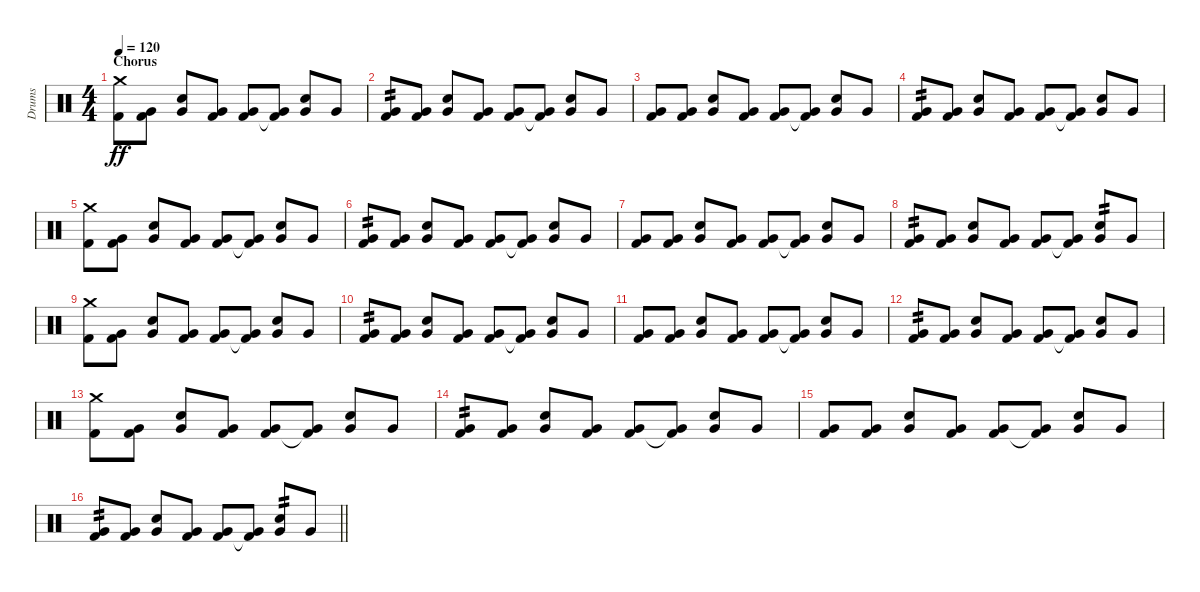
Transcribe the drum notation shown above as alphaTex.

\track ("Drums" "Drums") {instrument percussion}
\staff {score}
\articulation defaults
\ts (4 4)
\section ("" "Chorus")
\tempo 120
\clef neutral
\ks c
("Crash medium (hit)" "Kick (hit) 2").8{dy ff} ("Very Low Tom (hit)" "Kick (hit) 2").8 ("Very Low Tom (hit)" "Snare (hit) 2").8 ("Very Low Tom (hit)" "Kick (hit) 2").8 ("Very Low Tom (hit)" "Kick (hit) 2").8 ("Very Low Tom (hit)" "Kick (hit) 2"{t}).8 ("Very Low Tom (hit)" "Snare (hit) 2").8 "Very Low Tom (hit)".8 |
("Very Low Tom (hit)" "Kick (hit) 2").8{tp 2} ("Very Low Tom (hit)" "Kick (hit) 2").8 ("Very Low Tom (hit)" "Snare (hit) 2").8 ("Very Low Tom (hit)" "Kick (hit) 2").8 ("Very Low Tom (hit)" "Kick (hit) 2").8 ("Very Low Tom (hit)" "Kick (hit) 2"{t}).8 ("Very Low Tom (hit)" "Snare (hit) 2").8 "Very Low Tom (hit)".8 |
("Very Low Tom (hit)" "Kick (hit) 2").8 ("Very Low Tom (hit)" "Kick (hit) 2").8 ("Very Low Tom (hit)" "Snare (hit) 2").8 ("Very Low Tom (hit)" "Kick (hit) 2").8 ("Very Low Tom (hit)" "Kick (hit) 2").8 ("Very Low Tom (hit)" "Kick (hit) 2"{t}).8 ("Very Low Tom (hit)" "Snare (hit) 2").8 "Very Low Tom (hit)".8 |
("Very Low Tom (hit)" "Kick (hit) 2").8{tp 2} ("Very Low Tom (hit)" "Kick (hit) 2").8 ("Very Low Tom (hit)" "Snare (hit) 2").8 ("Very Low Tom (hit)" "Kick (hit) 2").8 ("Very Low Tom (hit)" "Kick (hit) 2").8 ("Very Low Tom (hit)" "Kick (hit) 2"{t}).8 ("Very Low Tom (hit)" "Snare (hit) 2").8 "Very Low Tom (hit)".8 |
("Crash medium (hit)" "Kick (hit) 2").8 ("Very Low Tom (hit)" "Kick (hit) 2").8 ("Very Low Tom (hit)" "Snare (hit) 2").8 ("Very Low Tom (hit)" "Kick (hit) 2").8 ("Very Low Tom (hit)" "Kick (hit) 2").8 ("Very Low Tom (hit)" "Kick (hit) 2"{t}).8 ("Very Low Tom (hit)" "Snare (hit) 2").8 "Very Low Tom (hit)".8 |
("Very Low Tom (hit)" "Kick (hit) 2").8{tp 2} ("Very Low Tom (hit)" "Kick (hit) 2").8 ("Very Low Tom (hit)" "Snare (hit) 2").8 ("Very Low Tom (hit)" "Kick (hit) 2").8 ("Very Low Tom (hit)" "Kick (hit) 2").8 ("Very Low Tom (hit)" "Kick (hit) 2"{t}).8 ("Very Low Tom (hit)" "Snare (hit) 2").8 "Very Low Tom (hit)".8 |
("Very Low Tom (hit)" "Kick (hit) 2").8 ("Very Low Tom (hit)" "Kick (hit) 2").8 ("Very Low Tom (hit)" "Snare (hit) 2").8 ("Very Low Tom (hit)" "Kick (hit) 2").8 ("Very Low Tom (hit)" "Kick (hit) 2").8 ("Very Low Tom (hit)" "Kick (hit) 2"{t}).8 ("Very Low Tom (hit)" "Snare (hit) 2").8 "Very Low Tom (hit)".8 |
("Very Low Tom (hit)" "Kick (hit) 2").8{tp 2} ("Very Low Tom (hit)" "Kick (hit) 2").8 ("Very Low Tom (hit)" "Snare (hit) 2").8 ("Very Low Tom (hit)" "Kick (hit) 2").8 ("Very Low Tom (hit)" "Kick (hit) 2").8 ("Very Low Tom (hit)" "Kick (hit) 2"{t}).8 ("Very Low Tom (hit)" "Snare (hit) 2").8{tp 2} "Very Low Tom (hit)".8 |
("Crash medium (hit)" "Kick (hit) 2").8 ("Very Low Tom (hit)" "Kick (hit) 2").8 ("Very Low Tom (hit)" "Snare (hit) 2").8 ("Very Low Tom (hit)" "Kick (hit) 2").8 ("Very Low Tom (hit)" "Kick (hit) 2").8 ("Very Low Tom (hit)" "Kick (hit) 2"{t}).8 ("Very Low Tom (hit)" "Snare (hit) 2").8 "Very Low Tom (hit)".8 |
("Very Low Tom (hit)" "Kick (hit) 2").8{tp 2} ("Very Low Tom (hit)" "Kick (hit) 2").8 ("Very Low Tom (hit)" "Snare (hit) 2").8 ("Very Low Tom (hit)" "Kick (hit) 2").8 ("Very Low Tom (hit)" "Kick (hit) 2").8 ("Very Low Tom (hit)" "Kick (hit) 2"{t}).8 ("Very Low Tom (hit)" "Snare (hit) 2").8 "Very Low Tom (hit)".8 |
("Very Low Tom (hit)" "Kick (hit) 2").8 ("Very Low Tom (hit)" "Kick (hit) 2").8 ("Very Low Tom (hit)" "Snare (hit) 2").8 ("Very Low Tom (hit)" "Kick (hit) 2").8 ("Very Low Tom (hit)" "Kick (hit) 2").8 ("Very Low Tom (hit)" "Kick (hit) 2"{t}).8 ("Very Low Tom (hit)" "Snare (hit) 2").8 "Very Low Tom (hit)".8 |
("Very Low Tom (hit)" "Kick (hit) 2").8{tp 2} ("Very Low Tom (hit)" "Kick (hit) 2").8 ("Very Low Tom (hit)" "Snare (hit) 2").8 ("Very Low Tom (hit)" "Kick (hit) 2").8 ("Very Low Tom (hit)" "Kick (hit) 2").8 ("Very Low Tom (hit)" "Kick (hit) 2"{t}).8 ("Very Low Tom (hit)" "Snare (hit) 2").8 "Very Low Tom (hit)".8 |
("Crash medium (hit)" "Kick (hit) 2").8 ("Very Low Tom (hit)" "Kick (hit) 2").8 ("Very Low Tom (hit)" "Snare (hit) 2").8 ("Very Low Tom (hit)" "Kick (hit) 2").8 ("Very Low Tom (hit)" "Kick (hit) 2").8 ("Very Low Tom (hit)" "Kick (hit) 2"{t}).8 ("Very Low Tom (hit)" "Snare (hit) 2").8 "Very Low Tom (hit)".8 |
("Very Low Tom (hit)" "Kick (hit) 2").8{tp 2} ("Very Low Tom (hit)" "Kick (hit) 2").8 ("Very Low Tom (hit)" "Snare (hit) 2").8 ("Very Low Tom (hit)" "Kick (hit) 2").8 ("Very Low Tom (hit)" "Kick (hit) 2").8 ("Very Low Tom (hit)" "Kick (hit) 2"{t}).8 ("Very Low Tom (hit)" "Snare (hit) 2").8 "Very Low Tom (hit)".8 |
("Very Low Tom (hit)" "Kick (hit) 2").8 ("Very Low Tom (hit)" "Kick (hit) 2").8 ("Very Low Tom (hit)" "Snare (hit) 2").8 ("Very Low Tom (hit)" "Kick (hit) 2").8 ("Very Low Tom (hit)" "Kick (hit) 2").8 ("Very Low Tom (hit)" "Kick (hit) 2"{t}).8 ("Very Low Tom (hit)" "Snare (hit) 2").8 "Very Low Tom (hit)".8 |
\barLineRight lightlight
("Very Low Tom (hit)" "Kick (hit) 2").8{tp 2} ("Very Low Tom (hit)" "Kick (hit) 2").8 ("Very Low Tom (hit)" "Snare (hit) 2").8 ("Very Low Tom (hit)" "Kick (hit) 2").8 ("Very Low Tom (hit)" "Kick (hit) 2").8 ("Very Low Tom (hit)" "Kick (hit) 2"{t}).8 ("Very Low Tom (hit)" "Snare (hit) 2").8{tp 2} "Very Low Tom (hit)".8
